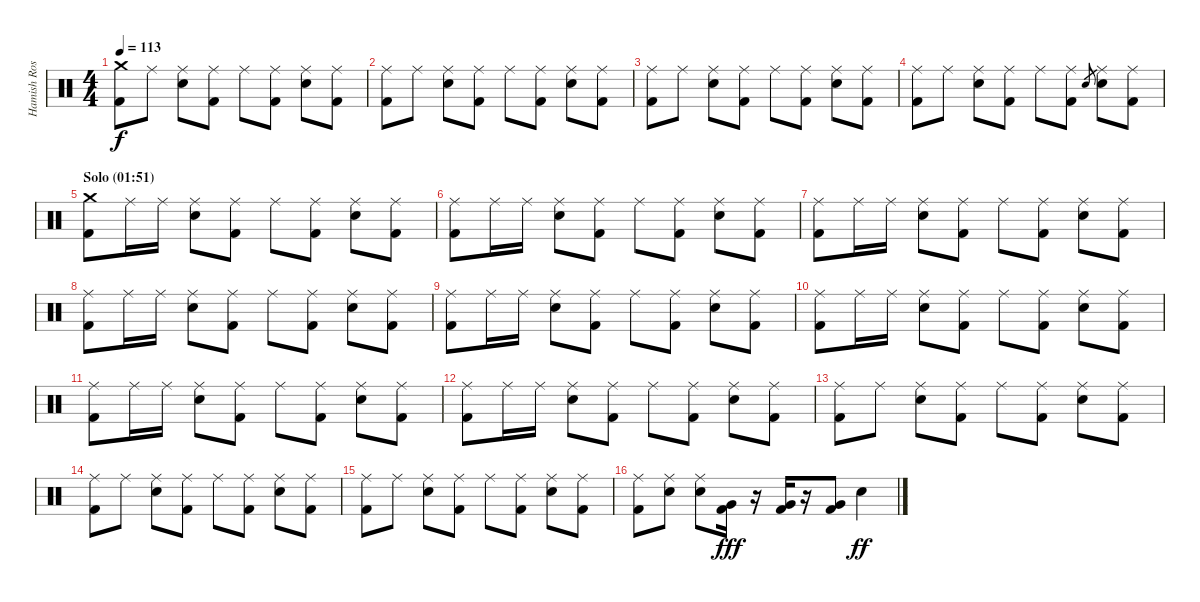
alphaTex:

\track ("Hamish Rosser" "Hamish Ros") {instrument percussion}
\staff {score}
\articulation defaults
\ts (4 4)
\tempo 113
\clef neutral
\ks c
("Crash medium (hit)" "Kick (hit) 2").8{dy f} "Ride (middle)".8 ("Ride (middle)" "Electric Snare (hit)").8 ("Ride (middle)" "Kick (hit) 2").8 "Ride (middle)".8 ("Ride (middle)" "Kick (hit) 2").8 ("Ride (middle)" "Electric Snare (hit)").8 ("Ride (middle)" "Kick (hit) 2").8 |
("Ride (middle)" "Kick (hit) 2").8 "Ride (middle)".8 ("Ride (middle)" "Electric Snare (hit)").8 ("Ride (middle)" "Kick (hit) 2").8 "Ride (middle)".8 ("Ride (middle)" "Kick (hit) 2").8 ("Ride (middle)" "Electric Snare (hit)").8 ("Ride (middle)" "Kick (hit) 2").8 |
("Ride (middle)" "Kick (hit) 2").8 "Ride (middle)".8 ("Ride (middle)" "Electric Snare (hit)").8 ("Ride (middle)" "Kick (hit) 2").8 "Ride (middle)".8 ("Ride (middle)" "Kick (hit) 2").8 ("Ride (middle)" "Electric Snare (hit)").8 ("Ride (middle)" "Kick (hit) 2").8 |
("Ride (middle)" "Kick (hit) 2").8 "Ride (middle)".8 ("Ride (middle)" "Electric Snare (hit)").8 ("Ride (middle)" "Kick (hit) 2").8 "Ride (middle)".8 ("Ride (middle)" "Kick (hit) 2").8 "Electric Snare (hit)".8{gr} ("Ride (middle)" "Electric Snare (hit)").8 ("Ride (middle)" "Kick (hit) 2").8 |
\section ("" "Solo (01:51)")
("Crash medium (hit)" "Kick (hit) 2").8 "Ride (middle)".16 "Ride (middle)".16 ("Ride (middle)" "Electric Snare (hit)").8 ("Ride (middle)" "Kick (hit) 2").8 "Ride (middle)".8 ("Ride (middle)" "Kick (hit) 2").8 ("Ride (middle)" "Electric Snare (hit)").8 ("Ride (middle)" "Kick (hit) 2").8 |
("Ride (middle)" "Kick (hit) 2").8 "Ride (middle)".16 "Ride (middle)".16 ("Ride (middle)" "Electric Snare (hit)").8 ("Ride (middle)" "Kick (hit) 2").8 "Ride (middle)".8 ("Ride (middle)" "Kick (hit) 2").8 ("Ride (middle)" "Electric Snare (hit)").8 ("Ride (middle)" "Kick (hit) 2").8 |
("Ride (middle)" "Kick (hit) 2").8 "Ride (middle)".16 "Ride (middle)".16 ("Ride (middle)" "Electric Snare (hit)").8 ("Ride (middle)" "Kick (hit) 2").8 "Ride (middle)".8 ("Ride (middle)" "Kick (hit) 2").8 ("Ride (middle)" "Electric Snare (hit)").8 ("Ride (middle)" "Kick (hit) 2").8 |
("Ride (middle)" "Kick (hit) 2").8 "Ride (middle)".16 "Ride (middle)".16 ("Ride (middle)" "Electric Snare (hit)").8 ("Ride (middle)" "Kick (hit) 2").8 "Ride (middle)".8 ("Ride (middle)" "Kick (hit) 2").8 ("Ride (middle)" "Electric Snare (hit)").8 ("Ride (middle)" "Kick (hit) 2").8 |
("Ride (middle)" "Kick (hit) 2").8 "Ride (middle)".16 "Ride (middle)".16 ("Ride (middle)" "Electric Snare (hit)").8 ("Ride (middle)" "Kick (hit) 2").8 "Ride (middle)".8 ("Ride (middle)" "Kick (hit) 2").8 ("Ride (middle)" "Electric Snare (hit)").8 ("Ride (middle)" "Kick (hit) 2").8 |
("Ride (middle)" "Kick (hit) 2").8 "Ride (middle)".16 "Ride (middle)".16 ("Ride (middle)" "Electric Snare (hit)").8 ("Ride (middle)" "Kick (hit) 2").8 "Ride (middle)".8 ("Ride (middle)" "Kick (hit) 2").8 ("Ride (middle)" "Electric Snare (hit)").8 ("Ride (middle)" "Kick (hit) 2").8 |
("Ride (middle)" "Kick (hit) 2").8 "Ride (middle)".16 "Ride (middle)".16 ("Ride (middle)" "Electric Snare (hit)").8 ("Ride (middle)" "Kick (hit) 2").8 "Ride (middle)".8 ("Ride (middle)" "Kick (hit) 2").8 ("Ride (middle)" "Electric Snare (hit)").8 ("Ride (middle)" "Kick (hit) 2").8 |
("Ride (middle)" "Kick (hit) 2").8 "Ride (middle)".16 "Ride (middle)".16 ("Ride (middle)" "Electric Snare (hit)").8 ("Ride (middle)" "Kick (hit) 2").8 "Ride (middle)".8 ("Ride (middle)" "Kick (hit) 2").8 ("Ride (middle)" "Electric Snare (hit)").8 ("Ride (middle)" "Kick (hit) 2").8 |
("Ride (middle)" "Kick (hit) 2").8 "Ride (middle)".8 ("Ride (middle)" "Electric Snare (hit)").8 ("Ride (middle)" "Kick (hit) 2").8 "Ride (middle)".8 ("Ride (middle)" "Kick (hit) 2").8 ("Ride (middle)" "Electric Snare (hit)").8 ("Ride (middle)" "Kick (hit) 2").8 |
("Ride (middle)" "Kick (hit) 2").8 "Ride (middle)".8 ("Ride (middle)" "Electric Snare (hit)").8 ("Ride (middle)" "Kick (hit) 2").8 "Ride (middle)".8 ("Ride (middle)" "Kick (hit) 2").8 ("Ride (middle)" "Electric Snare (hit)").8 ("Ride (middle)" "Kick (hit) 2").8 |
("Ride (middle)" "Kick (hit) 2").8 "Ride (middle)".8 ("Ride (middle)" "Electric Snare (hit)").8 ("Ride (middle)" "Kick (hit) 2").8 "Ride (middle)".8 ("Ride (middle)" "Kick (hit) 2").8 ("Ride (middle)" "Electric Snare (hit)").8 ("Ride (middle)" "Kick (hit) 2").8 |
("Ride (middle)" "Kick (hit) 2").8 ("Ride (middle)" "Electric Snare (hit)").8 ("Ride (middle)" "Electric Snare (hit)").8 ("Very Low Tom (hit)" "Kick (hit) 2").16{dy fff} r.16 ("Very Low Tom (hit)" "Kick (hit) 2").16 r.16 ("Very Low Tom (hit)" "Kick (hit) 2").8 "Electric Snare (hit)".4{dy ff}
